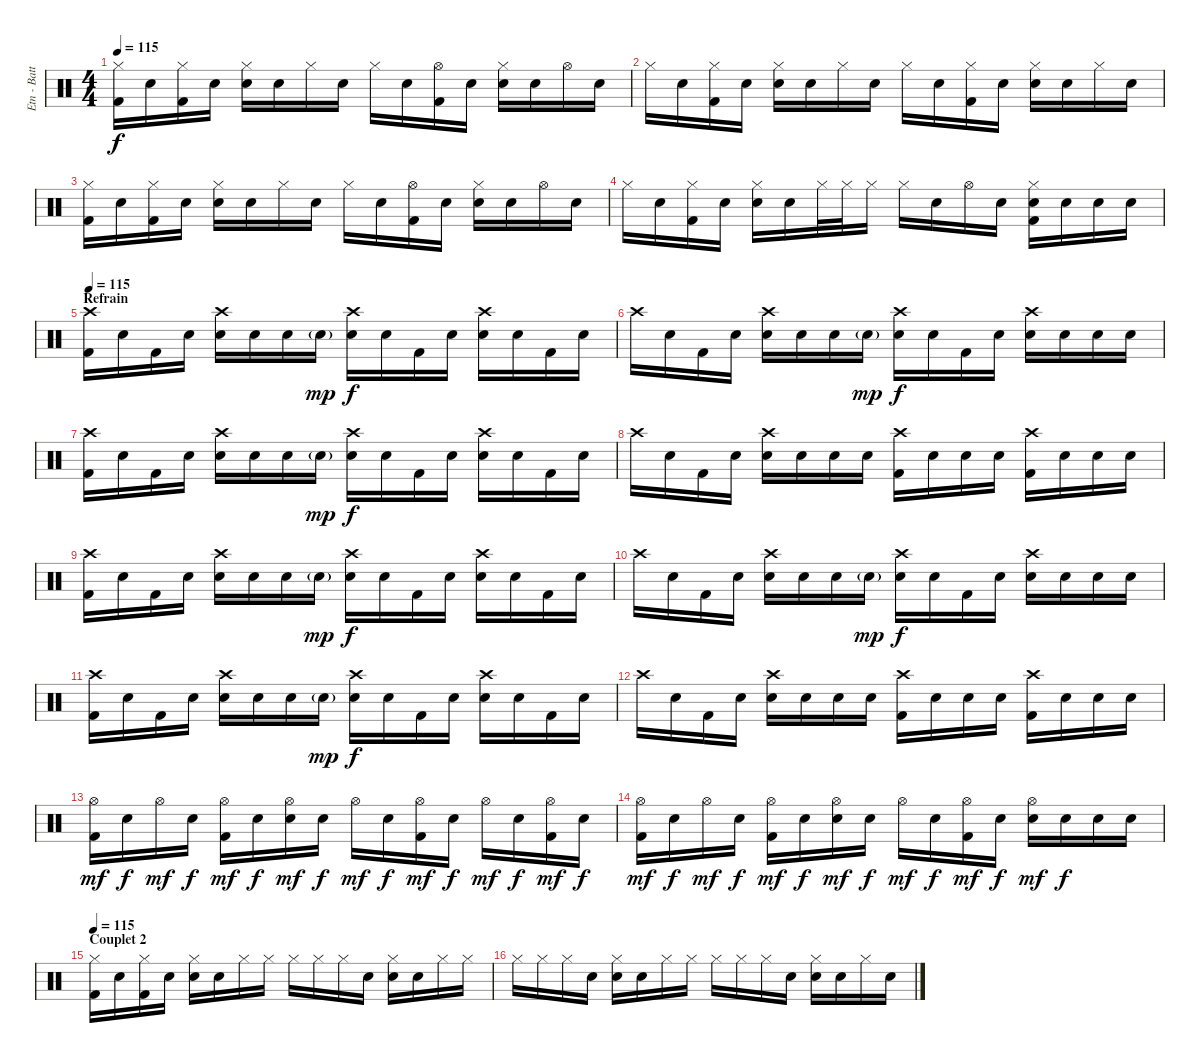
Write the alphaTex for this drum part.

\track ("Etn - Batterie" "Etn - Batt") {instrument percussion}
\staff {score}
\articulation defaults
\ts (4 4)
\tempo 115
\clef neutral
\ks c
("Hi-Hat (closed)" "Kick (hit) 2").16{dy f} "Snare (hit)".16 ("Hi-Hat (closed)" "Kick (hit) 2").16 "Snare (hit)".16 ("Hi-Hat (closed)" "Electric Snare (hit)").16 "Snare (hit)".16 "Hi-Hat (closed)".16 "Snare (hit)".16 "Hi-Hat (closed)".16 "Snare (hit)".16 ("Hi-Hat (open)" "Kick (hit) 2").16 "Snare (hit)".16 ("Hi-Hat (closed)" "Electric Snare (hit)").16 "Snare (hit)".16 "Hi-Hat (open)".16 "Snare (hit)".16 |
"Hi-Hat (closed)".16 "Snare (hit)".16 ("Hi-Hat (closed)" "Kick (hit) 2").16 "Snare (hit)".16 ("Hi-Hat (closed)" "Electric Snare (hit)").16 "Snare (hit)".16 "Hi-Hat (closed)".16 "Snare (hit)".16 "Hi-Hat (closed)".16 "Snare (hit)".16 ("Hi-Hat (closed)" "Kick (hit) 2").16 "Snare (hit)".16 ("Hi-Hat (closed)" "Electric Snare (hit)").16 "Snare (hit)".16 "Hi-Hat (closed)".16 "Snare (hit)".16 |
("Hi-Hat (closed)" "Kick (hit) 2").16 "Snare (hit)".16 ("Hi-Hat (closed)" "Kick (hit) 2").16 "Snare (hit)".16 ("Hi-Hat (closed)" "Electric Snare (hit)").16 "Snare (hit)".16 "Hi-Hat (closed)".16 "Snare (hit)".16 "Hi-Hat (closed)".16 "Snare (hit)".16 ("Hi-Hat (open)" "Kick (hit) 2").16 "Snare (hit)".16 ("Hi-Hat (closed)" "Electric Snare (hit)").16 "Snare (hit)".16 "Hi-Hat (open)".16 "Snare (hit)".16 |
"Hi-Hat (closed)".16 "Snare (hit)".16 ("Hi-Hat (closed)" "Kick (hit) 2").16 "Snare (hit)".16 ("Hi-Hat (closed)" "Electric Snare (hit)").16 "Snare (hit)".16 "Hi-Hat (closed)".32 "Hi-Hat (closed)".32 "Hi-Hat (closed)".16 "Hi-Hat (closed)".16 "Snare (hit)".16 "Hi-Hat (open)".16 "Snare (hit)".16 ("Hi-Hat (closed)" "Electric Snare (hit)" "Kick (hit) 2").16 "Snare (hit)".16 "Snare (hit)".16 "Snare (hit)".16 |
\section ("" "Refrain")
\tempo 115
("Crash high (hit)" "Kick (hit) 2").16{volume 16 balance 8} "Snare (hit)".16 "Kick (hit) 2".16 "Snare (hit)".16 ("Crash high (hit)" "Electric Snare (hit)").16 "Snare (hit)".16 "Snare (hit)".16 "Electric Snare (hit)"{g}.16{dy mp} ("Crash high (hit)" "Electric Snare (hit)").16{dy f} "Snare (hit)".16 "Kick (hit) 2".16 "Snare (hit)".16 ("Crash high (hit)" "Electric Snare (hit)").16 "Snare (hit)".16 "Kick (hit) 2".16 "Snare (hit)".16 |
"Crash high (hit)".16 "Snare (hit)".16 "Kick (hit) 2".16 "Snare (hit)".16 ("Crash high (hit)" "Electric Snare (hit)").16 "Snare (hit)".16 "Snare (hit)".16 "Electric Snare (hit)"{g}.16{dy mp} ("Crash high (hit)" "Electric Snare (hit)").16{dy f} "Snare (hit)".16 "Kick (hit) 2".16 "Snare (hit)".16 ("Crash high (hit)" "Electric Snare (hit)").16 "Snare (hit)".16 "Electric Snare (hit)".16 "Electric Snare (hit)".16 |
("Crash high (hit)" "Kick (hit) 2").16 "Snare (hit)".16 "Kick (hit) 2".16 "Snare (hit)".16 ("Crash high (hit)" "Electric Snare (hit)").16 "Snare (hit)".16 "Snare (hit)".16 "Electric Snare (hit)"{g}.16{dy mp} ("Crash high (hit)" "Electric Snare (hit)").16{dy f} "Snare (hit)".16 "Kick (hit) 2".16 "Snare (hit)".16 ("Crash high (hit)" "Electric Snare (hit)").16 "Snare (hit)".16 "Kick (hit) 2".16 "Snare (hit)".16 |
"Crash high (hit)".16 "Snare (hit)".16 "Kick (hit) 2".16 "Snare (hit)".16 ("Crash high (hit)" "Electric Snare (hit)").16 "Snare (hit)".16 "Snare (hit)".16 "Snare (hit)".16 ("Crash high (hit)" "Kick (hit) 2").16 "Snare (hit)".16 "Electric Snare (hit)".16 "Snare (hit)".16 ("Crash high (hit)" "Kick (hit) 2").16 "Snare (hit)".16 "Electric Snare (hit)".16 "Snare (hit)".16 |
("Crash high (hit)" "Kick (hit) 2").16 "Snare (hit)".16 "Kick (hit) 2".16 "Snare (hit)".16 ("Crash high (hit)" "Electric Snare (hit)").16 "Snare (hit)".16 "Snare (hit)".16 "Electric Snare (hit)"{g}.16{dy mp} ("Crash high (hit)" "Electric Snare (hit)").16{dy f} "Snare (hit)".16 "Kick (hit) 2".16 "Snare (hit)".16 ("Crash high (hit)" "Electric Snare (hit)").16 "Snare (hit)".16 "Kick (hit) 2".16 "Snare (hit)".16 |
"Crash high (hit)".16 "Snare (hit)".16 "Kick (hit) 2".16 "Snare (hit)".16 ("Crash high (hit)" "Electric Snare (hit)").16 "Snare (hit)".16 "Snare (hit)".16 "Electric Snare (hit)"{g}.16{dy mp} ("Crash high (hit)" "Electric Snare (hit)").16{dy f} "Snare (hit)".16 "Kick (hit) 2".16 "Snare (hit)".16 ("Crash high (hit)" "Electric Snare (hit)").16 "Snare (hit)".16 "Electric Snare (hit)".16 "Electric Snare (hit)".16 |
("Crash high (hit)" "Kick (hit) 2").16 "Snare (hit)".16 "Kick (hit) 2".16 "Snare (hit)".16 ("Crash high (hit)" "Electric Snare (hit)").16 "Snare (hit)".16 "Snare (hit)".16 "Electric Snare (hit)"{g}.16{dy mp} ("Crash high (hit)" "Electric Snare (hit)").16{dy f} "Snare (hit)".16 "Kick (hit) 2".16 "Snare (hit)".16 ("Crash high (hit)" "Electric Snare (hit)").16 "Snare (hit)".16 "Kick (hit) 2".16 "Snare (hit)".16 |
"Crash high (hit)".16 "Snare (hit)".16 "Kick (hit) 2".16 "Snare (hit)".16 ("Crash high (hit)" "Electric Snare (hit)").16 "Snare (hit)".16 "Snare (hit)".16 "Snare (hit)".16 ("Crash high (hit)" "Kick (hit) 2").16 "Snare (hit)".16 "Electric Snare (hit)".16 "Snare (hit)".16 ("Crash high (hit)" "Kick (hit) 2").16 "Snare (hit)".16 "Electric Snare (hit)".16 "Snare (hit)".16 |
\section ("" "")
("Hi-Hat (open)" "Kick (hit) 2").16{dy mf} "Snare (hit)".16{dy f} "Hi-Hat (open)".16{dy mf} "Snare (hit)".16{dy f} ("Hi-Hat (open)" "Kick (hit) 2").16{dy mf} "Snare (hit)".16{dy f} ("Hi-Hat (open)" "Electric Snare (hit)").16{dy mf} "Snare (hit)".16{dy f} "Hi-Hat (open)".16{dy mf} "Snare (hit)".16{dy f} ("Hi-Hat (open)" "Kick (hit) 2").16{dy mf} "Snare (hit)".16{dy f} "Hi-Hat (open)".16{dy mf} "Snare (hit)".16{dy f} ("Hi-Hat (open)" "Kick (hit) 2").16{dy mf} "Snare (hit)".16{dy f} |
("Hi-Hat (open)" "Kick (hit) 2").16{dy mf} "Snare (hit)".16{dy f} "Hi-Hat (open)".16{dy mf} "Snare (hit)".16{dy f} ("Hi-Hat (open)" "Kick (hit) 2").16{dy mf} "Snare (hit)".16{dy f} ("Hi-Hat (open)" "Electric Snare (hit)").16{dy mf} "Snare (hit)".16{dy f} "Hi-Hat (open)".16{dy mf} "Snare (hit)".16{dy f} ("Hi-Hat (open)" "Kick (hit) 2").16{dy mf} "Snare (hit)".16{dy f} ("Hi-Hat (open)" "Electric Snare (hit)").16{dy mf} "Snare (hit)".16{dy f} "Snare (hit)".16 "Snare (hit)".16 |
\section ("" "Couplet 2")
\tempo 115
("Hi-Hat (closed)" "Kick (hit) 2").16{volume 12 balance 8} "Snare (hit)".16 ("Hi-Hat (closed)" "Kick (hit) 2").16 "Snare (hit)".16 ("Hi-Hat (closed)" "Electric Snare (hit)").16 "Snare (hit)".16 "Hi-Hat (closed)".16 "Hi-Hat (closed)".16 "Hi-Hat (closed)".16 "Hi-Hat (closed)".16 "Hi-Hat (closed)".16 "Snare (hit)".16 ("Hi-Hat (closed)" "Electric Snare (hit)").16 "Snare (hit)".16 "Hi-Hat (closed)".16 "Hi-Hat (closed)".16 |
"Hi-Hat (closed)".16 "Hi-Hat (closed)".16 "Hi-Hat (closed)".16 "Snare (hit)".16 ("Hi-Hat (closed)" "Electric Snare (hit)").16 "Snare (hit)".16 "Hi-Hat (closed)".16 "Hi-Hat (closed)".16 "Hi-Hat (closed)".16 "Hi-Hat (closed)".16 "Hi-Hat (closed)".16 "Snare (hit)".16 ("Hi-Hat (closed)" "Electric Snare (hit)").16 "Snare (hit)".16 "Hi-Hat (closed)".16 "Snare (hit)".16
